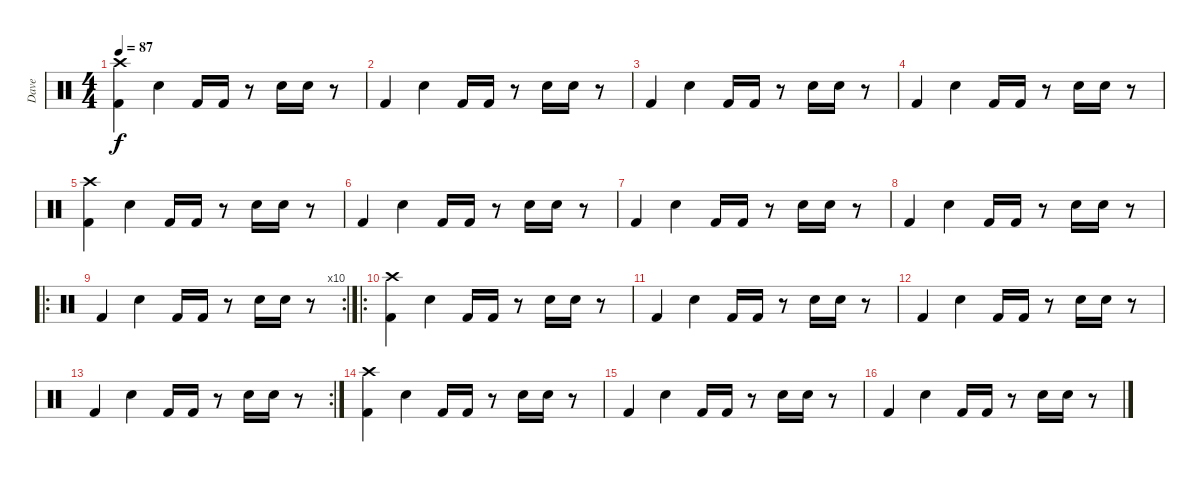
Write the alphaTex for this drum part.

\track ("Dave" "Dave") {instrument percussion}
\staff {score}
\articulation defaults
\ts (4 4)
\tempo 87
\clef neutral
\ks c
("Crash high (hit)" "Kick (hit) 2").4{dy f} "Snare (hit) 2".4 "Kick (hit) 2".16 "Kick (hit) 2".16 r.8 "Snare (hit) 2".16 "Snare (hit) 2".16 r.8 |
"Kick (hit) 2".4 "Snare (hit) 2".4 "Kick (hit) 2".16 "Kick (hit) 2".16 r.8 "Snare (hit) 2".16 "Snare (hit) 2".16 r.8 |
"Kick (hit) 2".4 "Snare (hit) 2".4 "Kick (hit) 2".16 "Kick (hit) 2".16 r.8 "Snare (hit) 2".16 "Snare (hit) 2".16 r.8 |
"Kick (hit) 2".4 "Snare (hit) 2".4 "Kick (hit) 2".16 "Kick (hit) 2".16 r.8 "Snare (hit) 2".16 "Snare (hit) 2".16 r.8 |
("Crash high (hit)" "Kick (hit) 2").4 "Snare (hit) 2".4 "Kick (hit) 2".16 "Kick (hit) 2".16 r.8 "Snare (hit) 2".16 "Snare (hit) 2".16 r.8 |
"Kick (hit) 2".4 "Snare (hit) 2".4 "Kick (hit) 2".16 "Kick (hit) 2".16 r.8 "Snare (hit) 2".16 "Snare (hit) 2".16 r.8 |
"Kick (hit) 2".4 "Snare (hit) 2".4 "Kick (hit) 2".16 "Kick (hit) 2".16 r.8 "Snare (hit) 2".16 "Snare (hit) 2".16 r.8 |
"Kick (hit) 2".4 "Snare (hit) 2".4 "Kick (hit) 2".16 "Kick (hit) 2".16 r.8 "Snare (hit) 2".16 "Snare (hit) 2".16 r.8 |
\ro
\rc 10 "Kick (hit) 2".4 "Snare (hit) 2".4 "Kick (hit) 2".16 "Kick (hit) 2".16
r.8 "Snare (hit) 2".16 "Snare (hit) 2".16 r.8 |
\ro
("Crash high (hit)" "Kick (hit) 2").4 "Snare (hit) 2".4 "Kick (hit) 2".16 "Kick (hit) 2".16 r.8 "Snare (hit) 2".16 "Snare (hit) 2".16 r.8 |
"Kick (hit) 2".4 "Snare (hit) 2".4 "Kick (hit) 2".16 "Kick (hit) 2".16 r.8 "Snare (hit) 2".16 "Snare (hit) 2".16 r.8 |
"Kick (hit) 2".4 "Snare (hit) 2".4 "Kick (hit) 2".16 "Kick (hit) 2".16 r.8 "Snare (hit) 2".16 "Snare (hit) 2".16 r.8 |
\rc 2 "Kick (hit) 2".4 "Snare (hit) 2".4 "Kick (hit) 2".16 "Kick (hit) 2".16
r.8 "Snare (hit) 2".16 "Snare (hit) 2".16 r.8 |
("Crash high (hit)" "Kick (hit) 2").4 "Snare (hit) 2".4 "Kick (hit) 2".16 "Kick (hit) 2".16 r.8 "Snare (hit) 2".16 "Snare (hit) 2".16 r.8 |
"Kick (hit) 2".4 "Snare (hit) 2".4 "Kick (hit) 2".16 "Kick (hit) 2".16 r.8 "Snare (hit) 2".16 "Snare (hit) 2".16 r.8 |
"Kick (hit) 2".4 "Snare (hit) 2".4 "Kick (hit) 2".16 "Kick (hit) 2".16 r.8 "Snare (hit) 2".16 "Snare (hit) 2".16 r.8
